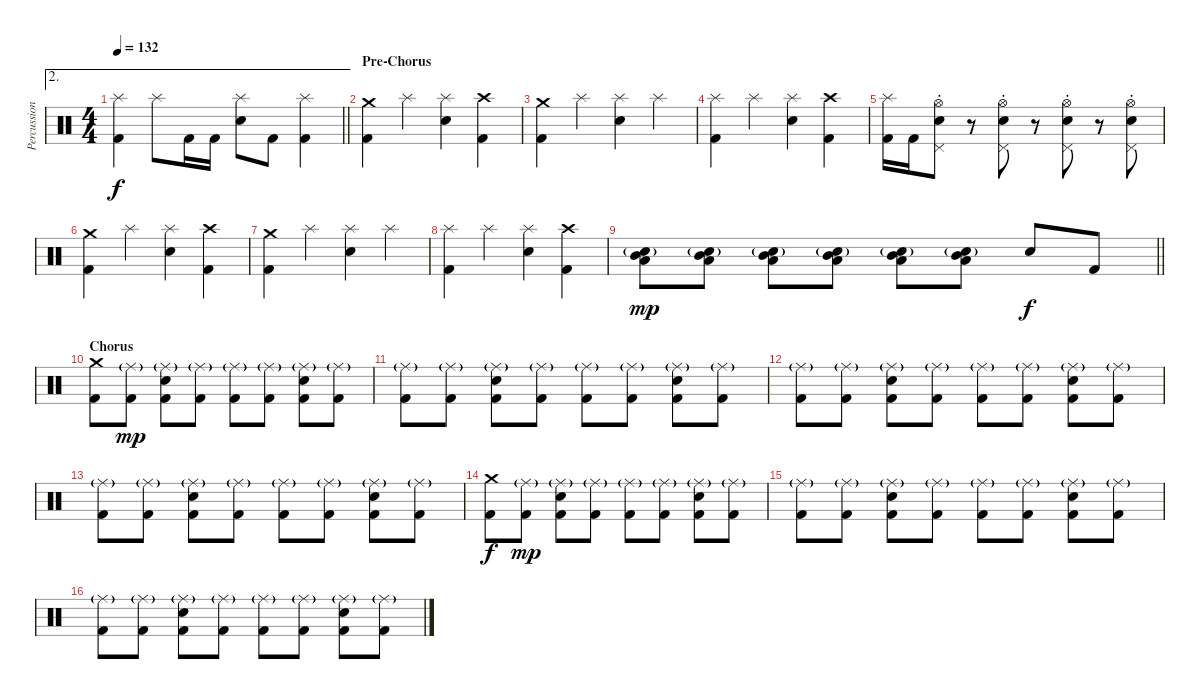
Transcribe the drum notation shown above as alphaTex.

\track ("Percussion" "Percussion") {instrument percussion}
\staff {score}
\articulation defaults
\ae 2
\ts (4 4)
\tempo 132
\clef neutral
\barLineRight lightlight
\ks c
("Kick (hit) 2" "Splash (hit)").4{dy f} "Splash (hit)".8 "Kick (hit) 2".16 "Kick (hit) 2".16 ("Snare (hit) 2" "Splash (hit)").8 "Kick (hit) 2".8 ("Kick (hit) 2" "Splash (hit)").4 |
\section ("" "Pre-Chorus")
("Kick (hit) 2" "Crash medium (hit)").4 "Splash (hit)".4 ("Snare (hit) 2" "Splash (hit)").4 ("Kick (hit) 2" "Crash high (hit)").4 |
("Kick (hit) 2" "Crash medium (hit)").4 "Splash (hit)".4 ("Snare (hit) 2" "Splash (hit)").4 "Splash (hit)".4 |
("Kick (hit) 2" "Splash (hit)").4 "Splash (hit)".4 ("Snare (hit) 2" "Splash (hit)").4 ("Kick (hit) 2" "Crash high (hit)").4 |
("Kick (hit) 2" "Splash (hit)").16 "Kick (hit) 2".16 ("Snare (hit) 2" "Pedal Hi-Hat (hit)" "Hi-Hat (open)"{st}).8 r.8 ("Snare (hit) 2" "Pedal Hi-Hat (hit)" "Hi-Hat (open)"{st}).8 r.8 ("Snare (hit) 2" "Pedal Hi-Hat (hit)" "Hi-Hat (open)"{st}).8 r.8 ("Snare (hit) 2" "Pedal Hi-Hat (hit)" "Hi-Hat (open)"{st}).8 |
("Kick (hit) 2" "Crash medium (hit)").4 "Splash (hit)".4 ("Snare (hit) 2" "Splash (hit)").4 ("Kick (hit) 2" "Crash high (hit)").4 |
("Kick (hit) 2" "Crash medium (hit)").4 "Splash (hit)".4 ("Snare (hit) 2" "Splash (hit)").4 "Splash (hit)".4 |
("Kick (hit) 2" "Splash (hit)").4 "Splash (hit)".4 ("Snare (hit) 2" "Splash (hit)").4 ("Kick (hit) 2" "Crash high (hit)").4 |
\barLineRight lightlight
("Snare (hit) 2"{g} "Mid Tom (hit)" "Low Tom (hit)").8{dy mp} ("Snare (hit) 2"{g} "Mid Tom (hit)" "Low Tom (hit)").8 ("Snare (hit) 2"{g} "Mid Tom (hit)" "Low Tom (hit)").8 ("Snare (hit) 2"{g} "Mid Tom (hit)" "Low Tom (hit)").8 ("Snare (hit) 2"{g} "Mid Tom (hit)" "Low Tom (hit)").8 ("Snare (hit) 2"{g} "Mid Tom (hit)" "Low Tom (hit)").8 "Snare (hit) 2".8{dy f} "Kick (hit) 2".8 |
\section ("" "Chorus")
("Kick (hit) 2" "Crash medium (hit)").8 ("Kick (hit) 2" "Ride (middle)"{g}).8{dy mp} ("Kick (hit) 2" "Snare (hit) 2" "Ride (middle)"{g}).8 ("Kick (hit) 2" "Ride (middle)"{g}).8 ("Kick (hit) 2" "Ride (middle)"{g}).8 ("Kick (hit) 2" "Ride (middle)"{g}).8 ("Kick (hit) 2" "Snare (hit) 2" "Ride (middle)"{g}).8 ("Kick (hit) 2" "Ride (middle)"{g}).8 |
("Kick (hit) 2" "Ride (middle)"{g}).8 ("Kick (hit) 2" "Ride (middle)"{g}).8 ("Kick (hit) 2" "Snare (hit) 2" "Ride (middle)"{g}).8 ("Kick (hit) 2" "Ride (middle)"{g}).8 ("Kick (hit) 2" "Ride (middle)"{g}).8 ("Kick (hit) 2" "Ride (middle)"{g}).8 ("Kick (hit) 2" "Snare (hit) 2" "Ride (middle)"{g}).8 ("Kick (hit) 2" "Ride (middle)"{g}).8 |
("Kick (hit) 2" "Ride (middle)"{g}).8 ("Kick (hit) 2" "Ride (middle)"{g}).8 ("Kick (hit) 2" "Snare (hit) 2" "Ride (middle)"{g}).8 ("Kick (hit) 2" "Ride (middle)"{g}).8 ("Kick (hit) 2" "Ride (middle)"{g}).8 ("Kick (hit) 2" "Ride (middle)"{g}).8 ("Kick (hit) 2" "Snare (hit) 2" "Ride (middle)"{g}).8 ("Kick (hit) 2" "Ride (middle)"{g}).8 |
("Kick (hit) 2" "Ride (middle)"{g}).8 ("Kick (hit) 2" "Ride (middle)"{g}).8 ("Kick (hit) 2" "Snare (hit) 2" "Ride (middle)"{g}).8 ("Kick (hit) 2" "Ride (middle)"{g}).8 ("Kick (hit) 2" "Ride (middle)"{g}).8 ("Kick (hit) 2" "Ride (middle)"{g}).8 ("Kick (hit) 2" "Snare (hit) 2" "Ride (middle)"{g}).8 ("Kick (hit) 2" "Ride (middle)"{g}).8 |
("Kick (hit) 2" "Crash medium (hit)").8{dy f} ("Kick (hit) 2" "Ride (middle)"{g}).8{dy mp} ("Kick (hit) 2" "Snare (hit) 2" "Ride (middle)"{g}).8 ("Kick (hit) 2" "Ride (middle)"{g}).8 ("Kick (hit) 2" "Ride (middle)"{g}).8 ("Kick (hit) 2" "Ride (middle)"{g}).8 ("Kick (hit) 2" "Snare (hit) 2" "Ride (middle)"{g}).8 ("Kick (hit) 2" "Ride (middle)"{g}).8 |
("Kick (hit) 2" "Ride (middle)"{g}).8 ("Kick (hit) 2" "Ride (middle)"{g}).8 ("Kick (hit) 2" "Snare (hit) 2" "Ride (middle)"{g}).8 ("Kick (hit) 2" "Ride (middle)"{g}).8 ("Kick (hit) 2" "Ride (middle)"{g}).8 ("Kick (hit) 2" "Ride (middle)"{g}).8 ("Kick (hit) 2" "Snare (hit) 2" "Ride (middle)"{g}).8 ("Kick (hit) 2" "Ride (middle)"{g}).8 |
("Kick (hit) 2" "Ride (middle)"{g}).8 ("Kick (hit) 2" "Ride (middle)"{g}).8 ("Kick (hit) 2" "Snare (hit) 2" "Ride (middle)"{g}).8 ("Kick (hit) 2" "Ride (middle)"{g}).8 ("Kick (hit) 2" "Ride (middle)"{g}).8 ("Kick (hit) 2" "Ride (middle)"{g}).8 ("Kick (hit) 2" "Snare (hit) 2" "Ride (middle)"{g}).8 ("Kick (hit) 2" "Ride (middle)"{g}).8
